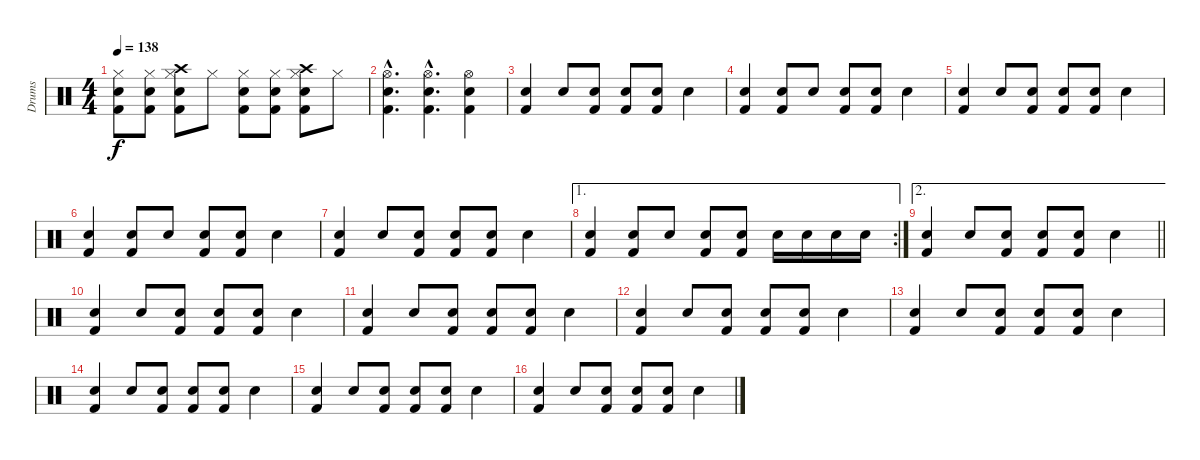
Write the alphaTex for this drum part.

\track ("Drums" "Drums") {instrument percussion}
\staff {score}
\articulation defaults
\ts (4 4)
\tempo 138
\clef neutral
\ks c
("Hi-Hat (closed)" "Snare (hit) 2" "Kick (hit) 2").8{dy f} ("Hi-Hat (closed)" "Snare (hit) 2" "Kick (hit) 2").8 ("Hi-Hat (closed)" "Crash high (hit)" "Snare (hit) 2" "Kick (hit) 2").8 "Hi-Hat (closed)".8 ("Hi-Hat (closed)" "Snare (hit) 2" "Kick (hit) 2").8 ("Hi-Hat (closed)" "Snare (hit) 2" "Kick (hit) 2").8 ("Hi-Hat (closed)" "Crash high (hit)" "Snare (hit) 2" "Kick (hit) 2").8 "Hi-Hat (closed)".8 |
("Hi-Hat (open)"{hac} "Snare (hit) 2"{hac} "Kick (hit) 2"{hac}).4{d} ("Hi-Hat (open)"{hac} "Snare (hit) 2"{hac} "Kick (hit) 2"{hac}).4{d} ("Hi-Hat (open)" "Snare (hit) 2" "Kick (hit) 2").4 |
("Snare (hit) 2" "Kick (hit) 2").4 "Electric Snare (hit)".8 ("Snare (hit) 2" "Kick (hit) 2").8 ("Snare (hit) 2" "Kick (hit) 2").8 ("Snare (hit) 2" "Kick (hit) 2").8 "Electric Snare (hit)".4 |
("Snare (hit) 2" "Kick (hit) 2").4 ("Snare (hit) 2" "Kick (hit) 2").8 "Electric Snare (hit)".8 ("Snare (hit) 2" "Kick (hit) 2").8 ("Snare (hit) 2" "Kick (hit) 2").8 "Electric Snare (hit)".4 |
("Snare (hit) 2" "Kick (hit) 2").4 "Electric Snare (hit)".8 ("Snare (hit) 2" "Kick (hit) 2").8 ("Snare (hit) 2" "Kick (hit) 2").8 ("Snare (hit) 2" "Kick (hit) 2").8 "Electric Snare (hit)".4 |
("Snare (hit) 2" "Kick (hit) 2").4 ("Snare (hit) 2" "Kick (hit) 2").8 "Electric Snare (hit)".8 ("Snare (hit) 2" "Kick (hit) 2").8 ("Snare (hit) 2" "Kick (hit) 2").8 "Electric Snare (hit)".4 |
("Snare (hit) 2" "Kick (hit) 2").4 "Electric Snare (hit)".8 ("Snare (hit) 2" "Kick (hit) 2").8 ("Snare (hit) 2" "Kick (hit) 2").8 ("Snare (hit) 2" "Kick (hit) 2").8 "Electric Snare (hit)".4 |
\ae 1
\rc 2
("Snare (hit) 2" "Kick (hit) 2").4 ("Snare (hit) 2" "Kick (hit) 2").8 "Electric Snare (hit)".8 ("Snare (hit) 2" "Kick (hit) 2").8 ("Snare (hit) 2" "Kick (hit) 2").8 "Snare (hit) 2".16 "Snare (hit) 2".16 "Snare (hit) 2".16 "Snare (hit) 2".16 |
\ae 2
\barLineRight lightlight
("Snare (hit) 2" "Kick (hit) 2").4 "Electric Snare (hit)".8 ("Snare (hit) 2" "Kick (hit) 2").8 ("Snare (hit) 2" "Kick (hit) 2").8 ("Snare (hit) 2" "Kick (hit) 2").8 "Electric Snare (hit)".4 |
("Snare (hit) 2" "Kick (hit) 2").4 "Electric Snare (hit)".8 ("Snare (hit) 2" "Kick (hit) 2").8 ("Snare (hit) 2" "Kick (hit) 2").8 ("Snare (hit) 2" "Kick (hit) 2").8 "Electric Snare (hit)".4 |
("Snare (hit) 2" "Kick (hit) 2").4 "Electric Snare (hit)".8 ("Snare (hit) 2" "Kick (hit) 2").8 ("Snare (hit) 2" "Kick (hit) 2").8 ("Snare (hit) 2" "Kick (hit) 2").8 "Electric Snare (hit)".4 |
("Snare (hit) 2" "Kick (hit) 2").4 "Electric Snare (hit)".8 ("Snare (hit) 2" "Kick (hit) 2").8 ("Snare (hit) 2" "Kick (hit) 2").8 ("Snare (hit) 2" "Kick (hit) 2").8 "Electric Snare (hit)".4 |
("Snare (hit) 2" "Kick (hit) 2").4 "Electric Snare (hit)".8 ("Snare (hit) 2" "Kick (hit) 2").8 ("Snare (hit) 2" "Kick (hit) 2").8 ("Snare (hit) 2" "Kick (hit) 2").8 "Electric Snare (hit)".4 |
("Snare (hit) 2" "Kick (hit) 2").4 "Electric Snare (hit)".8 ("Snare (hit) 2" "Kick (hit) 2").8 ("Snare (hit) 2" "Kick (hit) 2").8 ("Snare (hit) 2" "Kick (hit) 2").8 "Electric Snare (hit)".4 |
("Snare (hit) 2" "Kick (hit) 2").4 "Electric Snare (hit)".8 ("Snare (hit) 2" "Kick (hit) 2").8 ("Snare (hit) 2" "Kick (hit) 2").8 ("Snare (hit) 2" "Kick (hit) 2").8 "Electric Snare (hit)".4 |
("Snare (hit) 2" "Kick (hit) 2").4 "Electric Snare (hit)".8 ("Snare (hit) 2" "Kick (hit) 2").8 ("Snare (hit) 2" "Kick (hit) 2").8 ("Snare (hit) 2" "Kick (hit) 2").8 "Electric Snare (hit)".4
